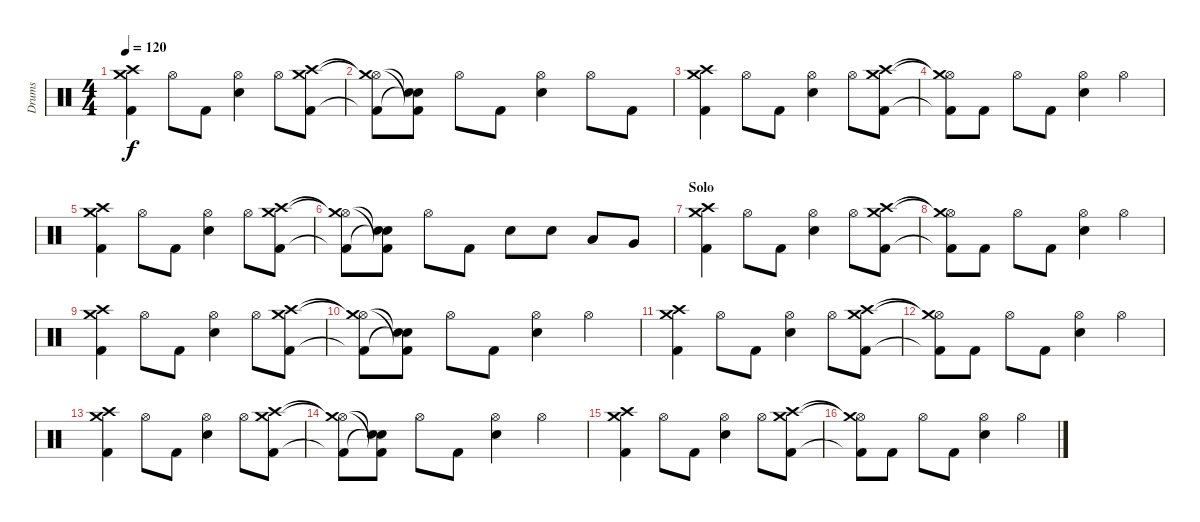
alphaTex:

\track ("Drums" "Drums") {instrument percussion}
\staff {score}
\articulation defaults
\ts (4 4)
\tempo 120
\clef neutral
\ks c
("Crash high (hit)" "Crash medium (hit)" "Kick (hit) 2").4{dy f} "Hi-Hat (open)".8 "Kick (hit) 2".8 ("Hi-Hat (open)" "Snare (hit) 2").4 "Hi-Hat (open)".8 ("Crash high (hit)" "Crash medium (hit)" "Kick (hit) 2").8 |
("Hi-Hat (open)"{t} "Crash medium (hit)"{t} "Kick (hit) 2"{t}).8 ("Kick (hit) 2"{t} "Snare (hit)"{t} "Snare (hit)"{t}).8 "Hi-Hat (open)".8 "Kick (hit) 2".8 ("Hi-Hat (open)" "Snare (hit) 2").4 "Hi-Hat (open)".8 "Kick (hit) 2".8 |
("Crash high (hit)" "Crash medium (hit)" "Kick (hit) 2").4 "Hi-Hat (open)".8 "Kick (hit) 2".8 ("Hi-Hat (open)" "Snare (hit) 2").4 "Hi-Hat (open)".8 ("Crash high (hit)" "Crash medium (hit)" "Kick (hit) 2").8 |
("Hi-Hat (open)"{t} "Crash medium (hit)"{t} "Kick (hit) 2"{t}).8 "Kick (hit) 2".8 "Hi-Hat (open)".8 "Kick (hit) 2".8 ("Hi-Hat (open)" "Snare (hit) 2").4 "Hi-Hat (open)".4 |
("Crash high (hit)" "Crash medium (hit)" "Kick (hit) 2").4 "Hi-Hat (open)".8 "Kick (hit) 2".8 ("Hi-Hat (open)" "Snare (hit) 2").4 "Hi-Hat (open)".8 ("Crash high (hit)" "Crash medium (hit)" "Kick (hit) 2").8 |
("Hi-Hat (open)"{t} "Crash medium (hit)"{t} "Kick (hit) 2"{t}).8 ("Kick (hit) 2"{t} "Snare (hit)"{t} "Snare (hit)"{t}).8 "Hi-Hat (open)".8 "Kick (hit) 2".8 "Snare (hit) 2".8 "Snare (hit) 2".8 "Low Tom (hit)".8 "Very Low Tom (hit)".8 |
\section ("" "Solo")
("Crash high (hit)" "Crash medium (hit)" "Kick (hit) 2").4 "Hi-Hat (open)".8 "Kick (hit) 2".8 ("Hi-Hat (open)" "Snare (hit) 2").4 "Hi-Hat (open)".8 ("Crash high (hit)" "Crash medium (hit)" "Kick (hit) 2").8 |
("Hi-Hat (open)"{t} "Crash medium (hit)"{t} "Kick (hit) 2"{t}).8 "Kick (hit) 2".8 "Hi-Hat (open)".8 "Kick (hit) 2".8 ("Hi-Hat (open)" "Snare (hit) 2").4 "Hi-Hat (open)".4 |
("Crash high (hit)" "Crash medium (hit)" "Kick (hit) 2").4 "Hi-Hat (open)".8 "Kick (hit) 2".8 ("Hi-Hat (open)" "Snare (hit) 2").4 "Hi-Hat (open)".8 ("Crash high (hit)" "Crash medium (hit)" "Kick (hit) 2").8 |
("Hi-Hat (open)"{t} "Crash medium (hit)"{t} "Kick (hit) 2"{t}).8 ("Kick (hit) 2"{t} "Snare (hit)"{t} "Snare (hit)"{t}).8 "Hi-Hat (open)".8 "Kick (hit) 2".8 ("Hi-Hat (open)" "Snare (hit) 2").4 "Hi-Hat (open)".4 |
("Crash high (hit)" "Crash medium (hit)" "Kick (hit) 2").4 "Hi-Hat (open)".8 "Kick (hit) 2".8 ("Hi-Hat (open)" "Snare (hit) 2").4 "Hi-Hat (open)".8 ("Crash high (hit)" "Crash medium (hit)" "Kick (hit) 2").8 |
("Hi-Hat (open)"{t} "Crash medium (hit)"{t} "Kick (hit) 2"{t}).8 "Kick (hit) 2".8 "Hi-Hat (open)".8 "Kick (hit) 2".8 ("Hi-Hat (open)" "Snare (hit) 2").4 "Hi-Hat (open)".4 |
("Crash high (hit)" "Crash medium (hit)" "Kick (hit) 2").4 "Hi-Hat (open)".8 "Kick (hit) 2".8 ("Hi-Hat (open)" "Snare (hit) 2").4 "Hi-Hat (open)".8 ("Crash high (hit)" "Crash medium (hit)" "Kick (hit) 2").8 |
("Hi-Hat (open)"{t} "Crash medium (hit)"{t} "Kick (hit) 2"{t}).8 ("Kick (hit) 2"{t} "Snare (hit)"{t} "Snare (hit)"{t}).8 "Hi-Hat (open)".8 "Kick (hit) 2".8 ("Hi-Hat (open)" "Snare (hit) 2").4 "Hi-Hat (open)".4 |
("Crash high (hit)" "Crash medium (hit)" "Kick (hit) 2").4 "Hi-Hat (open)".8 "Kick (hit) 2".8 ("Hi-Hat (open)" "Snare (hit) 2").4 "Hi-Hat (open)".8 ("Crash high (hit)" "Crash medium (hit)" "Kick (hit) 2").8 |
("Hi-Hat (open)"{t} "Crash medium (hit)"{t} "Kick (hit) 2"{t}).8 "Kick (hit) 2".8 "Hi-Hat (open)".8 "Kick (hit) 2".8 ("Hi-Hat (open)" "Snare (hit) 2").4 "Hi-Hat (open)".4
